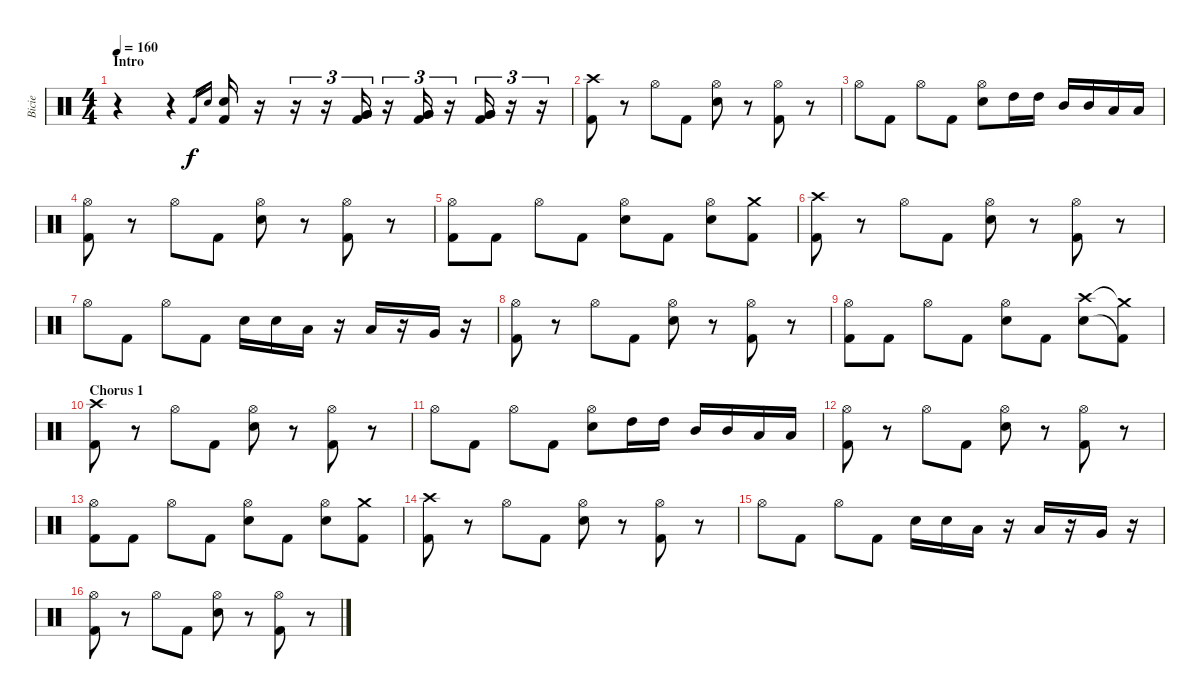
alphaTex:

\track ("Bicie" "Bicie") {instrument percussion}
\staff {score}
\articulation defaults
\ts (4 4)
\section ("" "Intro")
\tempo 160
\clef neutral
\ks c
r.4{dy f} r.4 "Kick (hit) 2".16{gr} "Electric Snare (hit)".16{gr} ("Kick (hit) 2" "Electric Snare (hit)").16 r.16 r.16{tu (3 2)} r.16{tu (3 2)} ("Kick (hit) 2" "Very Low Tom (hit)" "Very Low Tom (hit)").16{tu (3 2)} r.16{tu (3 2)} ("Kick (hit) 2" "Very Low Tom (hit)" "Very Low Tom (hit)").16{tu (3 2)} r.16{tu (3 2)} ("Kick (hit) 2" "Very Low Tom (hit)" "Very Low Tom (hit)").16{tu (3 2)} r.16{tu (3 2)} r.16{tu (3 2)} |
("Crash high (hit)" "Kick (hit) 2").8 r.8 "Hi-Hat (open)".8 "Kick (hit) 2".8 ("Hi-Hat (open)" "Electric Snare (hit)").8 r.8 ("Hi-Hat (open)" "Kick (hit) 2").8 r.8 |
"Hi-Hat (open)".8 "Kick (hit) 2".8 "Hi-Hat (open)".8 "Kick (hit) 2".8 ("Hi-Hat (open)" "Electric Snare (hit)").8 "High Tom (hit)".16 "High Tom (hit)".16 "Mid Tom (hit)".16 "Mid Tom (hit)".16 "Low Tom (hit)".16 "Low Tom (hit)".16 |
("Hi-Hat (open)" "Kick (hit) 2").8 r.8 "Hi-Hat (open)".8 "Kick (hit) 2".8 ("Hi-Hat (open)" "Electric Snare (hit)").8 r.8 ("Hi-Hat (open)" "Kick (hit) 2").8 r.8 |
("Hi-Hat (open)" "Kick (hit) 2").8 "Kick (hit) 2".8 "Hi-Hat (open)".8 "Kick (hit) 2".8 ("Hi-Hat (open)" "Electric Snare (hit)").8 "Kick (hit) 2".8 ("Hi-Hat (open)" "Electric Snare (hit)").8 ("Crash medium (hit)" "Kick (hit) 2").8 |
("Crash high (hit)" "Kick (hit) 2").8 r.8 "Hi-Hat (open)".8 "Kick (hit) 2".8 ("Hi-Hat (open)" "Electric Snare (hit)").8 r.8 ("Hi-Hat (open)" "Kick (hit) 2").8 r.8 |
"Hi-Hat (open)".8 "Kick (hit) 2".8 "Hi-Hat (open)".8 "Kick (hit) 2".8 "Electric Snare (hit)".16 "Electric Snare (hit)".16 "Low Tom (hit)".16 r.16 "Low Tom (hit)".16 r.16 "Very Low Tom (hit)".16 r.16 |
("Hi-Hat (open)" "Kick (hit) 2").8 r.8 "Hi-Hat (open)".8 "Kick (hit) 2".8 ("Hi-Hat (open)" "Electric Snare (hit)").8 r.8 ("Hi-Hat (open)" "Kick (hit) 2").8 r.8 |
("Hi-Hat (open)" "Kick (hit) 2").8 "Kick (hit) 2".8 "Hi-Hat (open)".8 "Kick (hit) 2".8 ("Hi-Hat (open)" "Electric Snare (hit)").8 "Kick (hit) 2".8 ("Crash high (hit)" "Electric Snare (hit)").8 ("Crash medium (hit)"{t} "Kick (hit) 2"{t}).8 |
\section ("" "Chorus 1")
("Crash high (hit)" "Kick (hit) 2").8 r.8 "Hi-Hat (open)".8 "Kick (hit) 2".8 ("Hi-Hat (open)" "Electric Snare (hit)").8 r.8 ("Hi-Hat (open)" "Kick (hit) 2").8 r.8 |
"Hi-Hat (open)".8 "Kick (hit) 2".8 "Hi-Hat (open)".8 "Kick (hit) 2".8 ("Hi-Hat (open)" "Electric Snare (hit)").8 "High Tom (hit)".16 "High Tom (hit)".16 "Mid Tom (hit)".16 "Mid Tom (hit)".16 "Low Tom (hit)".16 "Low Tom (hit)".16 |
("Hi-Hat (open)" "Kick (hit) 2").8 r.8 "Hi-Hat (open)".8 "Kick (hit) 2".8 ("Hi-Hat (open)" "Electric Snare (hit)").8 r.8 ("Hi-Hat (open)" "Kick (hit) 2").8 r.8 |
("Hi-Hat (open)" "Kick (hit) 2").8 "Kick (hit) 2".8 "Hi-Hat (open)".8 "Kick (hit) 2".8 ("Hi-Hat (open)" "Electric Snare (hit)").8 "Kick (hit) 2".8 ("Hi-Hat (open)" "Electric Snare (hit)").8 ("Crash medium (hit)" "Kick (hit) 2").8 |
("Crash high (hit)" "Kick (hit) 2").8 r.8 "Hi-Hat (open)".8 "Kick (hit) 2".8 ("Hi-Hat (open)" "Electric Snare (hit)").8 r.8 ("Hi-Hat (open)" "Kick (hit) 2").8 r.8 |
"Hi-Hat (open)".8 "Kick (hit) 2".8 "Hi-Hat (open)".8 "Kick (hit) 2".8 "Electric Snare (hit)".16 "Electric Snare (hit)".16 "Low Tom (hit)".16 r.16 "Low Tom (hit)".16 r.16 "Very Low Tom (hit)".16 r.16 |
("Hi-Hat (open)" "Kick (hit) 2").8 r.8 "Hi-Hat (open)".8 "Kick (hit) 2".8 ("Hi-Hat (open)" "Electric Snare (hit)").8 r.8 ("Hi-Hat (open)" "Kick (hit) 2").8 r.8
